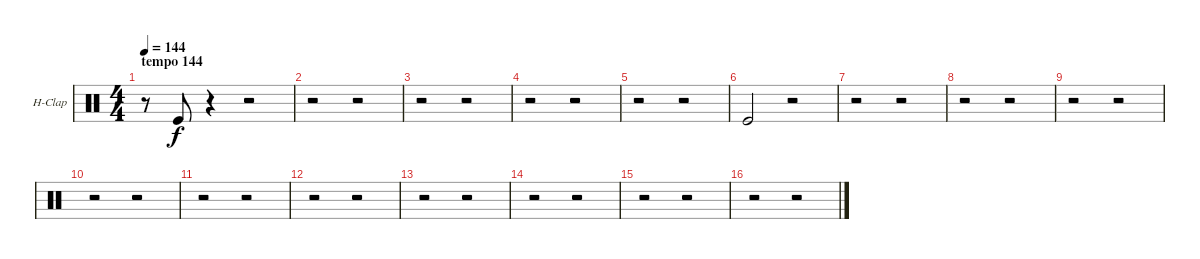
\bracketExtendMode groupsimilarinstruments
\firstSystemTrackNameOrientation horizontal
\otherSystemsTrackNameOrientation horizontal
\track ("Hand Clap" "H-Clap") {instrument percussion}
\staff {score}
\articulation defaults
\ts (4 4)
\beaming (8 2 2 2 2)
\section ("" "tempo 144")
\tempo 144
\clef neutral
\ks c
r.8{dy f} "Kick (hit)".8 r.4 r.2 |
r.2 r.2 |
r.2 r.2 |
r.2 r.2 |
r.2 r.2 |
"Kick (hit)".2 r.2 |
r.2 r.2 |
r.2 r.2 |
r.2 r.2 |
r.2 r.2 |
r.2 r.2 |
r.2 r.2 |
r.2 r.2 |
r.2 r.2 |
r.2 r.2 |
r.2 r.2
